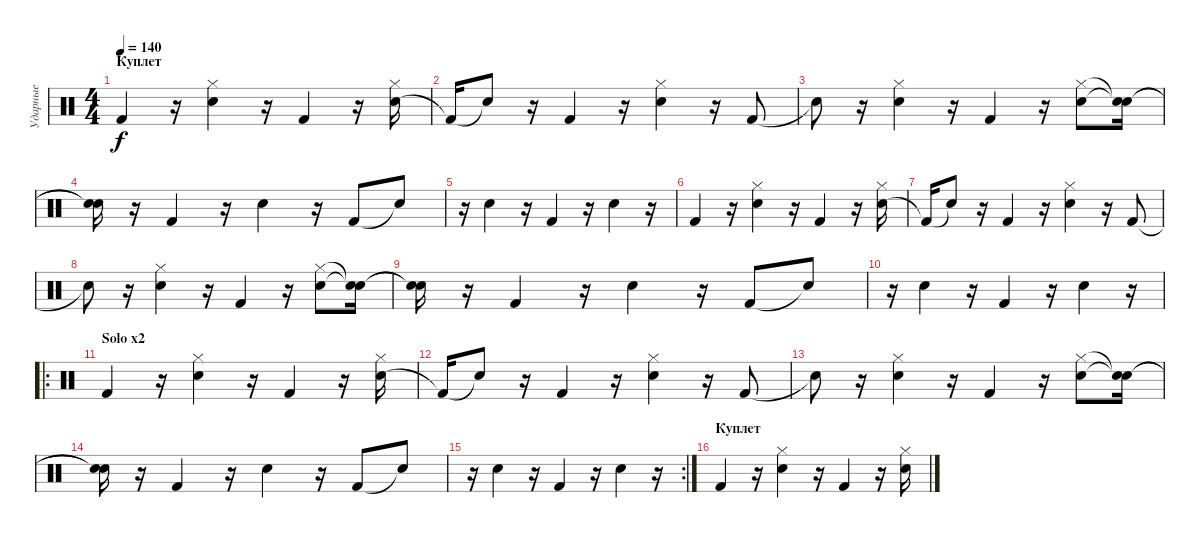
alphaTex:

\track ("Ударные" "Ударные") {instrument percussion}
\staff {score}
\articulation defaults
\ts (4 4)
\section ("" "Куплет")
\tempo 140
\clef neutral
\ks c "Kick (hit) 2".4{dy f}
r.16 ("Electric Snare (hit)" "Hi-Hat (closed)").4 r.16 "Kick (hit) 2".4 r.16 ("Electric Snare (hit)" "Hi-Hat (closed)").16 |
"Kick (hit) 2"{t}.16 "Snare (hit)"{t}.8 r.16 "Kick (hit) 2".4 r.16 ("Electric Snare (hit)" "Hi-Hat (closed)").4 r.16 "Kick (hit) 2".8 |
"Snare (hit)"{t}.8 r.16 ("Electric Snare (hit)" "Hi-Hat (closed)").4 r.16 "Kick (hit) 2".4 r.16 ("Electric Snare (hit)" "Hi-Hat (closed)").8 ("Snare (hit)"{t} "Snare (hit)"{t}).16 |
("Snare (hit)"{t} "Snare (hit)"{t}).16 r.16 "Kick (hit) 2".4 r.16 "Electric Snare (hit)".4 r.16 "Kick (hit) 2".8 "Snare (hit)"{t}.8 |
r.16 "Electric Snare (hit)".4 r.16 "Kick (hit) 2".4 r.16 "Electric Snare (hit)".4 r.16 |
"Kick (hit) 2".4 r.16 ("Electric Snare (hit)" "Hi-Hat (closed)").4 r.16 "Kick (hit) 2".4 r.16 ("Electric Snare (hit)" "Hi-Hat (closed)").16 |
"Kick (hit) 2"{t}.16 "Snare (hit)"{t}.8 r.16 "Kick (hit) 2".4 r.16 ("Electric Snare (hit)" "Hi-Hat (closed)").4 r.16 "Kick (hit) 2".8 |
"Snare (hit)"{t}.8 r.16 ("Electric Snare (hit)" "Hi-Hat (closed)").4 r.16 "Kick (hit) 2".4 r.16 ("Electric Snare (hit)" "Hi-Hat (closed)").8 ("Snare (hit)"{t} "Snare (hit)"{t}).16 |
("Snare (hit)"{t} "Snare (hit)"{t}).16 r.16 "Kick (hit) 2".4 r.16 "Electric Snare (hit)".4 r.16 "Kick (hit) 2".8 "Snare (hit)"{t}.8 |
r.16 "Electric Snare (hit)".4 r.16 "Kick (hit) 2".4 r.16 "Electric Snare (hit)".4 r.16 |
\ro
\section ("" "Solo х2")
"Kick (hit) 2".4 r.16 ("Electric Snare (hit)" "Hi-Hat (closed)").4 r.16 "Kick (hit) 2".4 r.16 ("Electric Snare (hit)" "Hi-Hat (closed)").16 |
"Kick (hit) 2"{t}.16 "Snare (hit)"{t}.8 r.16 "Kick (hit) 2".4 r.16 ("Electric Snare (hit)" "Hi-Hat (closed)").4 r.16 "Kick (hit) 2".8 |
"Snare (hit)"{t}.8 r.16 ("Electric Snare (hit)" "Hi-Hat (closed)").4 r.16 "Kick (hit) 2".4 r.16 ("Electric Snare (hit)" "Hi-Hat (closed)").8 ("Snare (hit)"{t} "Snare (hit)"{t}).16 |
("Snare (hit)"{t} "Snare (hit)"{t}).16 r.16 "Kick (hit) 2".4 r.16 "Electric Snare (hit)".4 r.16 "Kick (hit) 2".8 "Snare (hit)"{t}.8 |
\rc 2
r.16 "Electric Snare (hit)".4 r.16 "Kick (hit) 2".4 r.16 "Electric Snare (hit)".4 r.16 |
\section ("" "Куплет")
"Kick (hit) 2".4 r.16 ("Electric Snare (hit)" "Hi-Hat (closed)").4 r.16 "Kick (hit) 2".4 r.16 ("Electric Snare (hit)" "Hi-Hat (closed)").16
